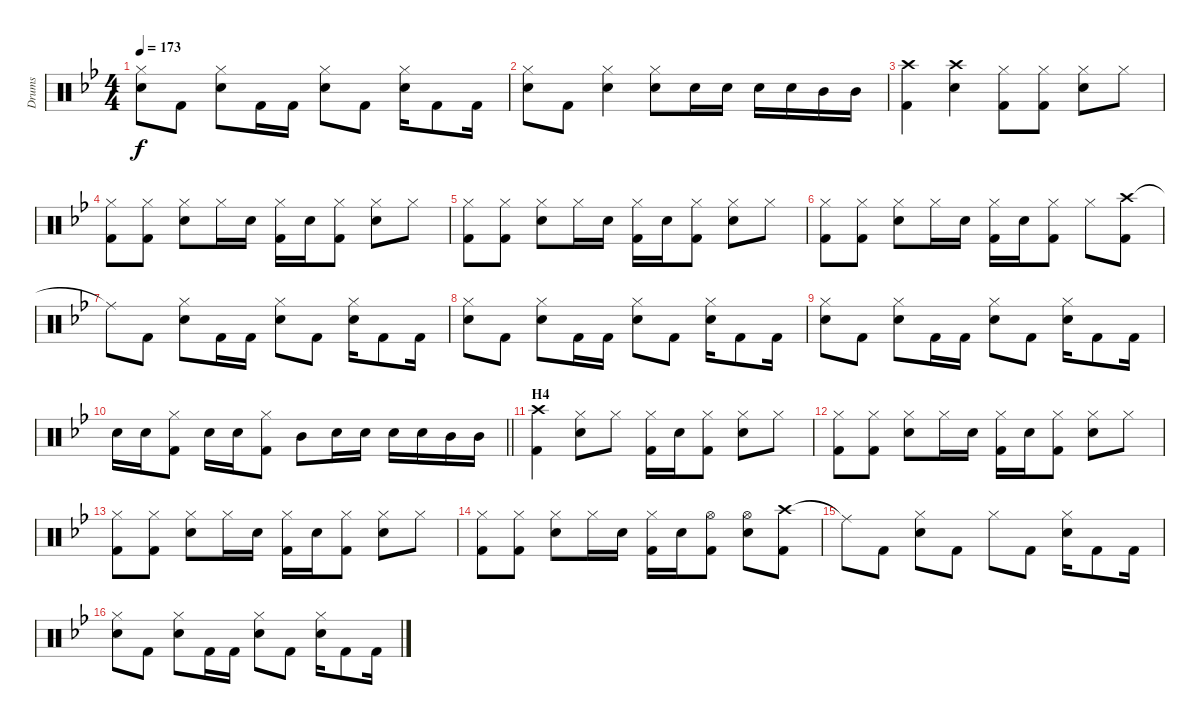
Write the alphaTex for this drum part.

\track ("Drums" "Drums") {instrument percussion}
\staff {score}
\articulation defaults
\ts (4 4)
\tempo 173
\clef neutral
\ks bb
("Hi-Hat (closed)" "Snare (hit) 2").8{dy f} "Kick (hit) 2".8 ("Hi-Hat (closed)" "Snare (hit) 2").8 "Kick (hit) 2".16 "Kick (hit) 2".16 ("Hi-Hat (closed)" "Snare (hit) 2").8 "Kick (hit) 2".8 ("Hi-Hat (closed)" "Snare (hit) 2").16 "Kick (hit) 2".8 "Kick (hit) 2".16 |
("Hi-Hat (closed)" "Snare (hit) 2").8 "Kick (hit) 2".8 ("Hi-Hat (closed)" "Snare (hit) 2").4 ("Hi-Hat (closed)" "Snare (hit) 2").8 "Snare (hit) 2".16 "Snare (hit) 2".16 "Snare (hit) 2".16 "Snare (hit) 2".16 "Mid Tom (hit)".16 "Mid Tom (hit)".16 |
("Crash high (hit)" "Kick (hit) 2").4 ("Crash high (hit)" "Snare (hit) 2").4 ("Hi-Hat (closed)" "Kick (hit) 2").8 ("Hi-Hat (closed)" "Kick (hit) 2").8 ("Hi-Hat (closed)" "Snare (hit) 2").8 "Hi-Hat (closed)".8 |
("Hi-Hat (closed)" "Kick (hit) 2").8 ("Hi-Hat (closed)" "Kick (hit) 2").8 ("Hi-Hat (closed)" "Snare (hit) 2").8 "Hi-Hat (closed)".16 "Snare (hit) 2".16 ("Hi-Hat (closed)" "Kick (hit) 2").16 "Snare (hit) 2".16 ("Hi-Hat (closed)" "Kick (hit) 2").8 ("Hi-Hat (closed)" "Snare (hit) 2").8 "Hi-Hat (closed)".8 |
("Hi-Hat (closed)" "Kick (hit) 2").8 ("Hi-Hat (closed)" "Kick (hit) 2").8 ("Hi-Hat (closed)" "Snare (hit) 2").8 "Hi-Hat (closed)".16 "Snare (hit) 2".16 ("Hi-Hat (closed)" "Kick (hit) 2").16 "Snare (hit) 2".16 ("Hi-Hat (closed)" "Kick (hit) 2").8 ("Hi-Hat (closed)" "Snare (hit) 2").8 "Hi-Hat (closed)".8 |
("Hi-Hat (closed)" "Kick (hit) 2").8 ("Hi-Hat (closed)" "Kick (hit) 2").8 ("Hi-Hat (closed)" "Snare (hit) 2").8 "Hi-Hat (closed)".16 "Snare (hit) 2".16 ("Hi-Hat (closed)" "Kick (hit) 2").16 "Snare (hit) 2".16 ("Hi-Hat (closed)" "Kick (hit) 2").8 "Hi-Hat (closed)".8 ("Crash high (hit)" "Kick (hit) 2").8 |
"Ride (middle)"{t}.8 "Kick (hit) 2".8 ("Hi-Hat (closed)" "Snare (hit) 2").8 "Kick (hit) 2".16 "Kick (hit) 2".16 ("Hi-Hat (closed)" "Snare (hit) 2").8 "Kick (hit) 2".8 ("Hi-Hat (closed)" "Snare (hit) 2").16 "Kick (hit) 2".8 "Kick (hit) 2".16 |
("Hi-Hat (closed)" "Snare (hit) 2").8 "Kick (hit) 2".8 ("Hi-Hat (closed)" "Snare (hit) 2").8 "Kick (hit) 2".16 "Kick (hit) 2".16 ("Hi-Hat (closed)" "Snare (hit) 2").8 "Kick (hit) 2".8 ("Hi-Hat (closed)" "Snare (hit) 2").16 "Kick (hit) 2".8 "Kick (hit) 2".16 |
("Hi-Hat (closed)" "Snare (hit) 2").8 "Kick (hit) 2".8 ("Hi-Hat (closed)" "Snare (hit) 2").8 "Kick (hit) 2".16 "Kick (hit) 2".16 ("Hi-Hat (closed)" "Snare (hit) 2").8 "Kick (hit) 2".8 ("Hi-Hat (closed)" "Snare (hit) 2").16 "Kick (hit) 2".8 "Kick (hit) 2".16 |
\barLineRight lightlight "Snare (hit) 2".16 "Snare (hit) 2".16
("Hi-Hat (closed)" "Kick (hit) 2").8 "Snare (hit) 2".16 "Snare (hit) 2".16 ("Hi-Hat (closed)" "Kick (hit) 2").8 "Mid Tom (hit)".8 "Snare (hit) 2".16 "Snare (hit) 2".16 "Snare (hit) 2".16 "Snare (hit) 2".16 "Mid Tom (hit)".16 "Mid Tom (hit)".16 |
\section ("" "H4")
("Crash high (hit)" "Kick (hit) 2").4 ("Hi-Hat (closed)" "Snare (hit) 2").8 "Hi-Hat (closed)".8 ("Hi-Hat (closed)" "Kick (hit) 2").16 "Snare (hit) 2".16 ("Hi-Hat (closed)" "Kick (hit) 2").8 ("Hi-Hat (closed)" "Snare (hit) 2").8 "Hi-Hat (closed)".8 |
("Hi-Hat (closed)" "Kick (hit) 2").8 ("Hi-Hat (closed)" "Kick (hit) 2").8 ("Hi-Hat (closed)" "Snare (hit) 2").8 "Hi-Hat (closed)".16 "Snare (hit) 2".16 ("Hi-Hat (closed)" "Kick (hit) 2").16 "Snare (hit) 2".16 ("Hi-Hat (closed)" "Kick (hit) 2").8 ("Hi-Hat (closed)" "Snare (hit) 2").8 "Hi-Hat (closed)".8 |
("Hi-Hat (closed)" "Kick (hit) 2").8 ("Hi-Hat (closed)" "Kick (hit) 2").8 ("Hi-Hat (closed)" "Snare (hit) 2").8 "Hi-Hat (closed)".16 "Snare (hit) 2".16 ("Hi-Hat (closed)" "Kick (hit) 2").16 "Snare (hit) 2".16 ("Hi-Hat (closed)" "Kick (hit) 2").8 ("Hi-Hat (closed)" "Snare (hit) 2").8 "Hi-Hat (closed)".8 |
("Hi-Hat (closed)" "Kick (hit) 2").8 ("Hi-Hat (closed)" "Kick (hit) 2").8 ("Hi-Hat (closed)" "Snare (hit) 2").8 "Hi-Hat (closed)".16 "Snare (hit) 2".16 ("Hi-Hat (closed)" "Kick (hit) 2").16 "Snare (hit) 2".16 ("Hi-Hat (open)" "Kick (hit) 2").8 ("Hi-Hat (open)" "Snare (hit) 2").8 ("Crash high (hit)" "Kick (hit) 2").8 |
"Ride (middle)"{t}.8 "Kick (hit) 2".8 ("Hi-Hat (closed)" "Snare (hit) 2").8 "Kick (hit) 2".8 "Hi-Hat (closed)".8 "Kick (hit) 2".8 ("Hi-Hat (closed)" "Snare (hit) 2").16 "Kick (hit) 2".8 "Kick (hit) 2".16 |
("Hi-Hat (closed)" "Snare (hit) 2").8 "Kick (hit) 2".8 ("Hi-Hat (closed)" "Snare (hit) 2").8 "Kick (hit) 2".16 "Kick (hit) 2".16 ("Hi-Hat (closed)" "Snare (hit) 2").8 "Kick (hit) 2".8 ("Hi-Hat (closed)" "Snare (hit) 2").16 "Kick (hit) 2".8 "Kick (hit) 2".16
